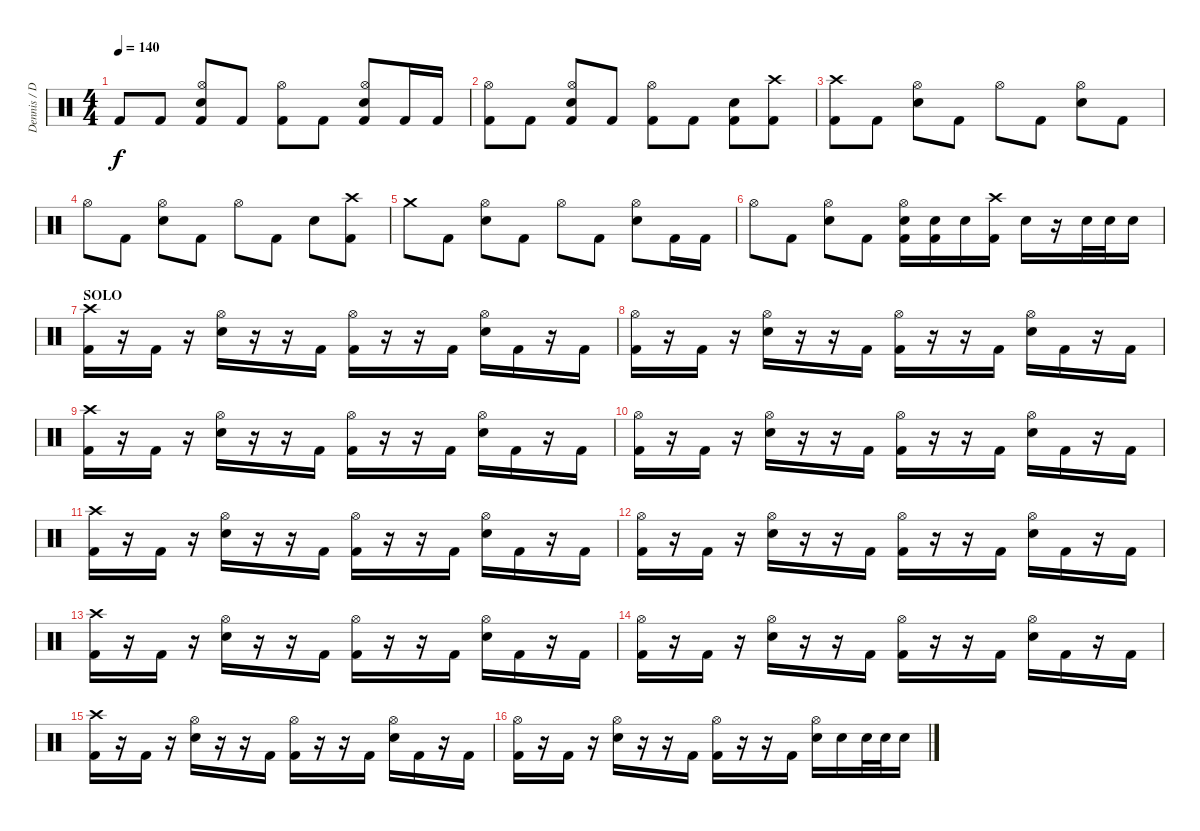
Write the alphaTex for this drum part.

\track ("Dennis / Drums" "Dennis / D") {instrument percussion}
\staff {score}
\articulation defaults
\ts (4 4)
\tempo 140
\clef neutral
\ks c "Kick (hit) 2".8{dy f} "Kick (hit) 2".8
("Hi-Hat (open)" "Electric Snare (hit)" "Kick (hit) 2").8 "Kick (hit) 2".8 ("Hi-Hat (open)" "Kick (hit) 2").8 "Kick (hit) 2".8 ("Hi-Hat (open)" "Electric Snare (hit)" "Kick (hit) 2").8 "Kick (hit) 2".16 "Kick (hit) 2".16 |
("Hi-Hat (open)" "Kick (hit) 2").8 "Kick (hit) 2".8 ("Hi-Hat (open)" "Electric Snare (hit)" "Kick (hit) 2").8 "Kick (hit) 2".8 ("Hi-Hat (open)" "Kick (hit) 2").8 "Kick (hit) 2".8 ("Electric Snare (hit)" "Kick (hit) 2").8 ("Crash high (hit)" "Kick (hit) 2").8 |
("Crash high (hit)" "Kick (hit) 2").8 "Kick (hit) 2".8 ("Hi-Hat (open)" "Electric Snare (hit)").8 "Kick (hit) 2".8 "Hi-Hat (open)".8 "Kick (hit) 2".8 ("Hi-Hat (open)" "Electric Snare (hit)").8 "Kick (hit) 2".8 |
"Hi-Hat (open)".8 "Kick (hit) 2".8 ("Hi-Hat (open)" "Electric Snare (hit)").8 "Kick (hit) 2".8 "Hi-Hat (open)".8 "Kick (hit) 2".8 "Electric Snare (hit)".8 ("Crash high (hit)" "Kick (hit) 2").8 |
"Crash medium (hit)".8 "Kick (hit) 2".8 ("Hi-Hat (open)" "Electric Snare (hit)").8 "Kick (hit) 2".8 "Hi-Hat (open)".8 "Kick (hit) 2".8 ("Hi-Hat (open)" "Electric Snare (hit)").8 "Kick (hit) 2".16 "Kick (hit) 2".16 |
"Hi-Hat (open)".8 "Kick (hit) 2".8 ("Hi-Hat (open)" "Electric Snare (hit)").8 "Kick (hit) 2".8 ("Hi-Hat (open)" "Electric Snare (hit)" "Kick (hit) 2").16 ("Electric Snare (hit)" "Kick (hit) 2").16 "Electric Snare (hit)".16 ("Crash high (hit)" "Kick (hit) 2").16 "Electric Snare (hit)".16 r.16 "Electric Snare (hit)".32 "Electric Snare (hit)".32 "Electric Snare (hit)".16 |
\section ("" "SOLO")
("Crash high (hit)" "Kick (hit) 2").16 r.16 "Kick (hit) 2".16 r.16 ("Hi-Hat (open)" "Electric Snare (hit)").16 r.16 r.16 "Kick (hit) 2".16 ("Hi-Hat (open)" "Kick (hit) 2").16 r.16 r.16 "Kick (hit) 2".16 ("Hi-Hat (open)" "Electric Snare (hit)").16 "Kick (hit) 2".16 r.16 "Kick (hit) 2".16 |
("Hi-Hat (open)" "Kick (hit) 2").16 r.16 "Kick (hit) 2".16 r.16 ("Hi-Hat (open)" "Electric Snare (hit)").16 r.16 r.16 "Kick (hit) 2".16 ("Hi-Hat (open)" "Kick (hit) 2").16 r.16 r.16 "Kick (hit) 2".16 ("Hi-Hat (open)" "Electric Snare (hit)").16 "Kick (hit) 2".16 r.16 "Kick (hit) 2".16 |
("Crash high (hit)" "Kick (hit) 2").16 r.16 "Kick (hit) 2".16 r.16 ("Hi-Hat (open)" "Electric Snare (hit)").16 r.16 r.16 "Kick (hit) 2".16 ("Hi-Hat (open)" "Kick (hit) 2").16 r.16 r.16 "Kick (hit) 2".16 ("Hi-Hat (open)" "Electric Snare (hit)").16 "Kick (hit) 2".16 r.16 "Kick (hit) 2".16 |
("Hi-Hat (open)" "Kick (hit) 2").16 r.16 "Kick (hit) 2".16 r.16 ("Hi-Hat (open)" "Electric Snare (hit)").16 r.16 r.16 "Kick (hit) 2".16 ("Hi-Hat (open)" "Kick (hit) 2").16 r.16 r.16 "Kick (hit) 2".16 ("Hi-Hat (open)" "Electric Snare (hit)").16 "Kick (hit) 2".16 r.16 "Kick (hit) 2".16 |
("Crash high (hit)" "Kick (hit) 2").16 r.16 "Kick (hit) 2".16 r.16 ("Hi-Hat (open)" "Electric Snare (hit)").16 r.16 r.16 "Kick (hit) 2".16 ("Hi-Hat (open)" "Kick (hit) 2").16 r.16 r.16 "Kick (hit) 2".16 ("Hi-Hat (open)" "Electric Snare (hit)").16 "Kick (hit) 2".16 r.16 "Kick (hit) 2".16 |
("Hi-Hat (open)" "Kick (hit) 2").16 r.16 "Kick (hit) 2".16 r.16 ("Hi-Hat (open)" "Electric Snare (hit)").16 r.16 r.16 "Kick (hit) 2".16 ("Hi-Hat (open)" "Kick (hit) 2").16 r.16 r.16 "Kick (hit) 2".16 ("Hi-Hat (open)" "Electric Snare (hit)").16 "Kick (hit) 2".16 r.16 "Kick (hit) 2".16 |
("Crash high (hit)" "Kick (hit) 2").16 r.16 "Kick (hit) 2".16 r.16 ("Hi-Hat (open)" "Electric Snare (hit)").16 r.16 r.16 "Kick (hit) 2".16 ("Hi-Hat (open)" "Kick (hit) 2").16 r.16 r.16 "Kick (hit) 2".16 ("Hi-Hat (open)" "Electric Snare (hit)").16 "Kick (hit) 2".16 r.16 "Kick (hit) 2".16 |
\section ("" "")
("Hi-Hat (open)" "Kick (hit) 2").16 r.16 "Kick (hit) 2".16 r.16 ("Hi-Hat (open)" "Electric Snare (hit)").16 r.16 r.16 "Kick (hit) 2".16 ("Hi-Hat (open)" "Kick (hit) 2").16 r.16 r.16 "Kick (hit) 2".16 ("Hi-Hat (open)" "Electric Snare (hit)").16 "Kick (hit) 2".16 r.16 "Kick (hit) 2".16 |
("Crash high (hit)" "Kick (hit) 2").16 r.16 "Kick (hit) 2".16 r.16 ("Hi-Hat (open)" "Electric Snare (hit)").16 r.16 r.16 "Kick (hit) 2".16 ("Hi-Hat (open)" "Kick (hit) 2").16 r.16 r.16 "Kick (hit) 2".16 ("Hi-Hat (open)" "Electric Snare (hit)").16 "Kick (hit) 2".16 r.16 "Kick (hit) 2".16 |
("Hi-Hat (open)" "Kick (hit) 2").16 r.16 "Kick (hit) 2".16 r.16 ("Hi-Hat (open)" "Electric Snare (hit)").16 r.16 r.16 "Kick (hit) 2".16 ("Hi-Hat (open)" "Kick (hit) 2").16 r.16 r.16 "Kick (hit) 2".16 ("Hi-Hat (open)" "Electric Snare (hit)").16 "Electric Snare (hit)".16 "Electric Snare (hit)".32 "Electric Snare (hit)".32 "Electric Snare (hit)".16
